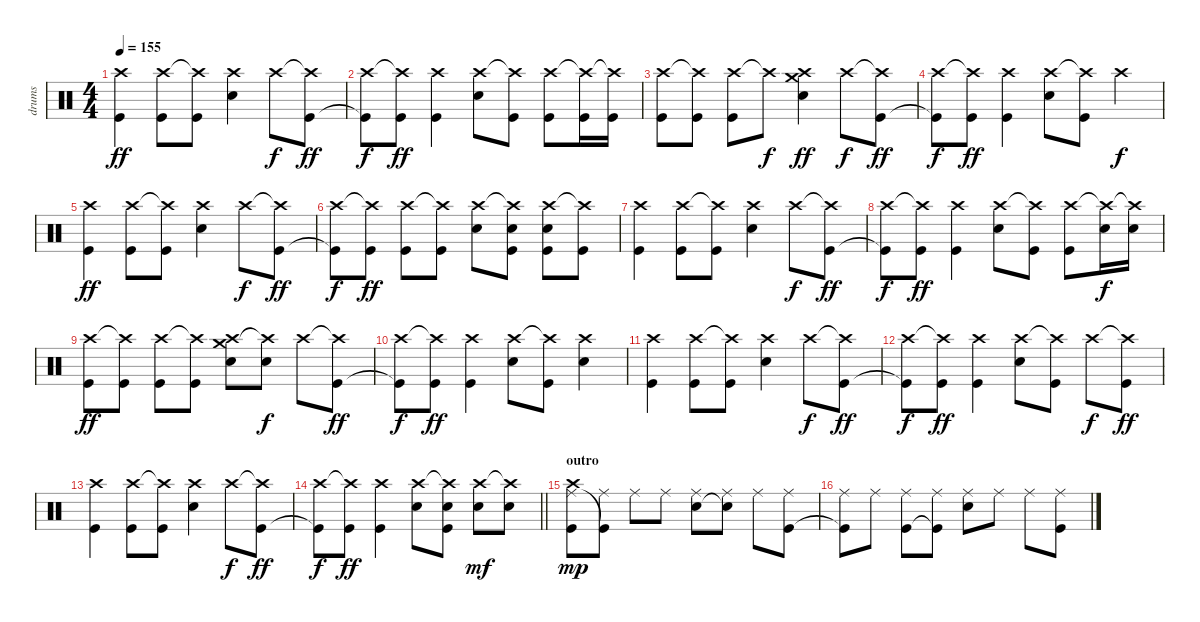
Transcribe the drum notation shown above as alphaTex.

\track ("drums" "drums") {instrument percussion}
\staff {score}
\articulation defaults
\ts (4 4)
\tempo 155
\clef neutral
\ks c
("Crash high (hit)" "Kick (hit)").4{dy ff} ("Crash high (hit)" "Kick (hit)").8 ("Crash high (hit)"{t} "Kick (hit)").8 ("Crash high (hit)" "Electric Snare (hit)").4 "Crash high (hit)".8{dy f} ("Crash high (hit)"{t} "Kick (hit)").8{dy ff} |
("Crash high (hit)" "Kick (hit)"{t}).8{dy f} ("Crash high (hit)"{t} "Kick (hit)").8{dy ff} ("Crash high (hit)" "Kick (hit)").4 ("Crash high (hit)" "Electric Snare (hit)").8 ("Crash high (hit)"{t} "Kick (hit)").8 ("Crash high (hit)" "Kick (hit)").8 ("Crash high (hit)"{t} "Kick (hit)").16 ("Crash high (hit)"{t} "Kick (hit)").16 |
("Crash high (hit)" "Kick (hit)").8 ("Crash high (hit)"{t} "Kick (hit)").8 ("Crash high (hit)" "Kick (hit)").8 "Crash high (hit)"{t}.8{dy f} ("Crash medium (hit)" "Crash high (hit)" "Electric Snare (hit)").4{dy ff} "Crash high (hit)".8{dy f} ("Crash high (hit)"{t} "Kick (hit)").8{dy ff} |
("Crash high (hit)" "Kick (hit)"{t}).8{dy f} ("Crash high (hit)"{t} "Kick (hit)").8{dy ff} ("Crash high (hit)" "Kick (hit)").4 ("Crash high (hit)" "Electric Snare (hit)").8 ("Crash high (hit)"{t} "Kick (hit)").8 "Crash high (hit)".4{dy f} |
("Crash high (hit)" "Kick (hit)").4{dy ff} ("Crash high (hit)" "Kick (hit)").8 ("Crash high (hit)"{t} "Kick (hit)").8 ("Crash high (hit)" "Electric Snare (hit)").4 "Crash high (hit)".8{dy f} ("Crash high (hit)"{t} "Kick (hit)").8{dy ff} |
("Crash high (hit)" "Kick (hit)"{t}).8{dy f} ("Crash high (hit)"{t} "Kick (hit)").8{dy ff} ("Crash high (hit)" "Kick (hit)").8 ("Crash high (hit)"{t} "Kick (hit)").8 ("Crash high (hit)" "Electric Snare (hit)").8 ("Crash high (hit)"{t} "Electric Snare (hit)" "Kick (hit)").8 ("Crash high (hit)" "Electric Snare (hit)" "Kick (hit)").8 ("Crash high (hit)"{t} "Kick (hit)").8 |
("Crash high (hit)" "Kick (hit)").4 ("Crash high (hit)" "Kick (hit)").8 ("Crash high (hit)"{t} "Kick (hit)").8 ("Crash high (hit)" "Electric Snare (hit)").4 "Crash high (hit)".8{dy f} ("Crash high (hit)"{t} "Kick (hit)").8{dy ff} |
("Crash high (hit)" "Kick (hit)"{t}).8{dy f} ("Crash high (hit)"{t} "Kick (hit)").8{dy ff} ("Crash high (hit)" "Kick (hit)").4 ("Crash high (hit)" "Electric Snare (hit)").8 ("Crash high (hit)"{t} "Kick (hit)").8 ("Crash high (hit)" "Kick (hit)").8 ("Crash high (hit)"{t} "Electric Snare (hit)").16{dy f} ("Crash high (hit)"{t} "Electric Snare (hit)").16 |
("Crash high (hit)" "Kick (hit)").8{dy ff} ("Crash high (hit)"{t} "Kick (hit)").8 ("Crash high (hit)" "Kick (hit)").8 ("Crash high (hit)"{t} "Kick (hit)").8 ("Crash medium (hit)" "Crash high (hit)" "Electric Snare (hit)").8 ("Crash high (hit)"{t} "Electric Snare (hit)").8{dy f} "Crash high (hit)".8 ("Crash high (hit)"{t} "Kick (hit)").8{dy ff} |
("Crash high (hit)" "Kick (hit)"{t}).8{dy f} ("Crash high (hit)"{t} "Kick (hit)").8{dy ff} ("Crash high (hit)" "Kick (hit)").4 ("Crash high (hit)" "Electric Snare (hit)").8 ("Crash high (hit)"{t} "Kick (hit)").8 ("Crash high (hit)" "Electric Snare (hit)").4 |
("Crash high (hit)" "Kick (hit)").4 ("Crash high (hit)" "Kick (hit)").8 ("Crash high (hit)"{t} "Kick (hit)").8 ("Crash high (hit)" "Electric Snare (hit)").4 "Crash high (hit)".8{dy f} ("Crash high (hit)"{t} "Kick (hit)").8{dy ff} |
("Crash high (hit)" "Kick (hit)"{t}).8{dy f} ("Crash high (hit)"{t} "Kick (hit)").8{dy ff} ("Crash high (hit)" "Kick (hit)").4 ("Crash high (hit)" "Electric Snare (hit)").8 ("Crash high (hit)"{t} "Kick (hit)").8 "Crash high (hit)".8{dy f} ("Crash high (hit)"{t} "Kick (hit)").8{dy ff} |
("Crash high (hit)" "Kick (hit)").4 ("Crash high (hit)" "Kick (hit)").8 ("Crash high (hit)"{t} "Kick (hit)").8 ("Crash high (hit)" "Electric Snare (hit)").4 "Crash high (hit)".8{dy f} ("Crash high (hit)"{t} "Kick (hit)").8{dy ff} |
\barLineRight lightlight
("Crash high (hit)" "Kick (hit)"{t}).8{dy f} ("Crash high (hit)"{t} "Kick (hit)").8{dy ff} ("Crash high (hit)" "Kick (hit)").4 ("Crash high (hit)" "Electric Snare (hit)").8 ("Crash high (hit)"{t} "Electric Snare (hit)" "Kick (hit)").8 ("Crash high (hit)" "Electric Snare (hit)").8{dy mf} ("Crash high (hit)"{t} "Electric Snare (hit)").8 |
\section ("" "outro")
("Crash high (hit)" "Ride (middle)" "Kick (hit)").8{dy mp} ("Ride (middle)" "Kick (hit)"{t}).8 "Ride (middle)".8 "Ride (middle)".8 ("Ride (middle)" "Electric Snare (hit)").8 ("Ride (middle)" "Electric Snare (hit)"{t}).8 "Ride (middle)".8 ("Ride (middle)" "Kick (hit)").8 |
("Ride (middle)" "Kick (hit)"{t}).8 "Ride (middle)".8 ("Ride (middle)" "Kick (hit)").8 ("Ride (middle)" "Kick (hit)"{t}).8 ("Ride (middle)" "Electric Snare (hit)").8 "Ride (middle)".8 "Ride (middle)".8 ("Ride (middle)" "Kick (hit)").8
